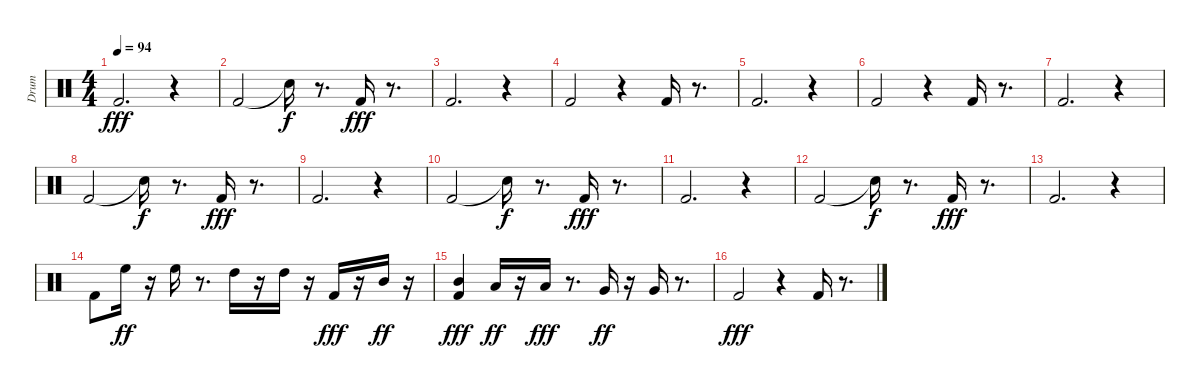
\track ("Drum                    " "Drum      ") {instrument percussion}
\staff {score}
\articulation defaults
\ts (4 4)
\tempo 94
\clef neutral
\ks c "Kick (hit) 2".2{d dy fff}
r.4 |
"Kick (hit) 2".2 "Snare (hit)"{t}.16{dy f} r.8{d} "Kick (hit) 2".16{dy fff} r.8{d} |
"Kick (hit) 2".2{d} r.4 |
"Kick (hit) 2".2 r.4 "Kick (hit) 2".16 r.8{d} |
"Kick (hit) 2".2{d} r.4 |
"Kick (hit) 2".2 r.4 "Kick (hit) 2".16 r.8{d} |
"Kick (hit) 2".2{d} r.4 |
"Kick (hit) 2".2 "Snare (hit)"{t}.16{dy f} r.8{d} "Kick (hit) 2".16{dy fff} r.8{d} |
"Kick (hit) 2".2{d} r.4 |
"Kick (hit) 2".2 "Snare (hit)"{t}.16{dy f} r.8{d} "Kick (hit) 2".16{dy fff} r.8{d} |
"Kick (hit) 2".2{d} r.4 |
"Kick (hit) 2".2 "Snare (hit)"{t}.16{dy f} r.8{d} "Kick (hit) 2".16{dy fff} r.8{d} |
"Kick (hit) 2".2{d} r.4 |
"Kick (hit) 2".8 "High Floor Tom (hit)".16{dy ff} r.16 "High Floor Tom (hit)".16 r.8{d} "High Tom (hit)".16 r.16 "High Tom (hit)".16 r.16 "Kick (hit) 2".16{dy fff} r.16 "Mid Tom (hit)".16{dy ff} r.16 |
("Mid Tom (hit)" "Kick (hit) 2").4{dy fff} "Low Tom (hit)".16{dy ff} r.16 "Low Tom (hit)".16{dy fff} r.8{d} "Very Low Tom (hit)".16{dy ff} r.16 "Very Low Tom (hit)".16 r.8{d} |
"Kick (hit) 2".2{dy fff} r.4 "Kick (hit) 2".16 r.8{d}
